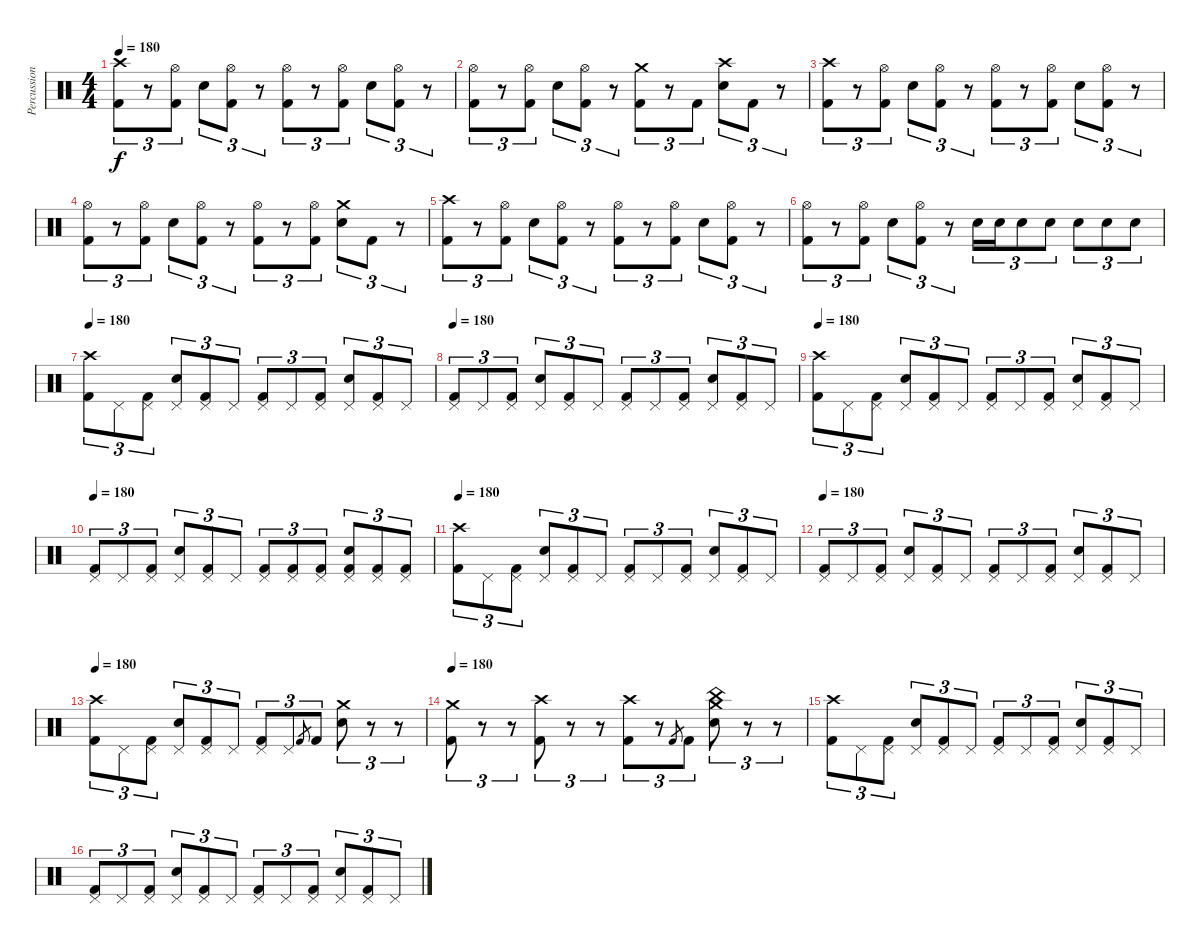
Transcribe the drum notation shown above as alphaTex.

\track ("Percussion" "Percussion") {instrument percussion}
\staff {score}
\articulation defaults
\ts (4 4)
\tempo 180
\clef neutral
\ks c
("Crash high (hit)" "Kick (hit) 2").8{tu (3 2) dy f} r.8{tu (3 2)} ("Hi-Hat (open)" "Kick (hit) 2").8{tu (3 2)} "Snare (hit) 2".8{tu (3 2)} ("Hi-Hat (open)" "Kick (hit) 2").8{tu (3 2)} r.8{tu (3 2)} ("Hi-Hat (open)" "Kick (hit) 2").8{tu (3 2)} r.8{tu (3 2)} ("Hi-Hat (open)" "Kick (hit) 2").8{tu (3 2)} "Snare (hit) 2".8{tu (3 2)} ("Hi-Hat (open)" "Kick (hit) 2").8{tu (3 2)} r.8{tu (3 2)} |
("Hi-Hat (open)" "Kick (hit) 2").8{tu (3 2)} r.8{tu (3 2)} ("Hi-Hat (open)" "Kick (hit) 2").8{tu (3 2)} "Snare (hit) 2".8{tu (3 2)} ("Hi-Hat (open)" "Kick (hit) 2").8{tu (3 2)} r.8{tu (3 2)} ("Crash medium (hit)" "Kick (hit) 2").8{tu (3 2)} r.8{tu (3 2)} "Kick (hit) 2".8{tu (3 2)} ("Crash high (hit)" "Snare (hit) 2").8{tu (3 2)} "Kick (hit) 2".8{tu (3 2)} r.8{tu (3 2)} |
("Crash high (hit)" "Kick (hit) 2").8{tu (3 2)} r.8{tu (3 2)} ("Hi-Hat (open)" "Kick (hit) 2").8{tu (3 2)} "Snare (hit) 2".8{tu (3 2)} ("Hi-Hat (open)" "Kick (hit) 2").8{tu (3 2)} r.8{tu (3 2)} ("Hi-Hat (open)" "Kick (hit) 2").8{tu (3 2)} r.8{tu (3 2)} ("Hi-Hat (open)" "Kick (hit) 2").8{tu (3 2)} "Snare (hit) 2".8{tu (3 2)} ("Hi-Hat (open)" "Kick (hit) 2").8{tu (3 2)} r.8{tu (3 2)} |
("Hi-Hat (open)" "Kick (hit) 2").8{tu (3 2)} r.8{tu (3 2)} ("Hi-Hat (open)" "Kick (hit) 2").8{tu (3 2)} "Snare (hit) 2".8{tu (3 2)} ("Hi-Hat (open)" "Kick (hit) 2").8{tu (3 2)} r.8{tu (3 2)} ("Hi-Hat (open)" "Kick (hit) 2").8{tu (3 2)} r.8{tu (3 2)} ("Hi-Hat (open)" "Kick (hit) 2").8{tu (3 2)} ("Crash medium (hit)" "Snare (hit) 2").8{tu (3 2)} "Kick (hit) 2".8{tu (3 2)} r.8{tu (3 2)} |
("Crash high (hit)" "Kick (hit) 2").8{tu (3 2)} r.8{tu (3 2)} ("Hi-Hat (open)" "Kick (hit) 2").8{tu (3 2)} "Snare (hit) 2".8{tu (3 2)} ("Hi-Hat (open)" "Kick (hit) 2").8{tu (3 2)} r.8{tu (3 2)} ("Hi-Hat (open)" "Kick (hit) 2").8{tu (3 2)} r.8{tu (3 2)} ("Hi-Hat (open)" "Kick (hit) 2").8{tu (3 2)} "Snare (hit) 2".8{tu (3 2)} ("Hi-Hat (open)" "Kick (hit) 2").8{tu (3 2)} r.8{tu (3 2)} |
("Hi-Hat (open)" "Kick (hit) 2").8{tu (3 2)} r.8{tu (3 2)} ("Hi-Hat (open)" "Kick (hit) 2").8{tu (3 2)} "Snare (hit) 2".8{tu (3 2)} ("Hi-Hat (open)" "Kick (hit) 2").8{tu (3 2)} r.8{tu (3 2)} "Snare (hit) 2".16{tu (3 2)} "Snare (hit) 2".16{tu (3 2)} "Snare (hit) 2".8{tu (3 2)} "Snare (hit) 2".8{tu (3 2)} "Snare (hit) 2".8{tu (3 2)} "Snare (hit) 2".8{tu (3 2)} "Snare (hit) 2".8{tu (3 2)} |
\tempo 180
("Crash high (hit)" "Kick (hit) 2").8{tu (3 2)} "Pedal Hi-Hat (hit)".8{tu (3 2)} ("Pedal Hi-Hat (hit)" "Kick (hit) 2").8{tu (3 2)} ("Pedal Hi-Hat (hit)" "Snare (hit) 2").8{tu (3 2)} ("Pedal Hi-Hat (hit)" "Kick (hit) 2").8{tu (3 2)} "Pedal Hi-Hat (hit)".8{tu (3 2)} ("Pedal Hi-Hat (hit)" "Kick (hit) 2").8{tu (3 2)} "Pedal Hi-Hat (hit)".8{tu (3 2)} ("Pedal Hi-Hat (hit)" "Kick (hit) 2").8{tu (3 2)} ("Pedal Hi-Hat (hit)" "Snare (hit) 2").8{tu (3 2)} ("Pedal Hi-Hat (hit)" "Kick (hit) 2").8{tu (3 2)} "Pedal Hi-Hat (hit)".8{tu (3 2)} |
\tempo 180
("Pedal Hi-Hat (hit)" "Kick (hit) 2").8{tu (3 2)} "Pedal Hi-Hat (hit)".8{tu (3 2)} ("Pedal Hi-Hat (hit)" "Kick (hit) 2").8{tu (3 2)} ("Pedal Hi-Hat (hit)" "Snare (hit) 2").8{tu (3 2)} ("Pedal Hi-Hat (hit)" "Kick (hit) 2").8{tu (3 2)} "Pedal Hi-Hat (hit)".8{tu (3 2)} ("Pedal Hi-Hat (hit)" "Kick (hit) 2").8{tu (3 2)} "Pedal Hi-Hat (hit)".8{tu (3 2)} ("Pedal Hi-Hat (hit)" "Kick (hit) 2").8{tu (3 2)} ("Pedal Hi-Hat (hit)" "Snare (hit) 2").8{tu (3 2)} ("Pedal Hi-Hat (hit)" "Kick (hit) 2").8{tu (3 2)} "Pedal Hi-Hat (hit)".8{tu (3 2)} |
\tempo 180
("Crash high (hit)" "Kick (hit) 2").8{tu (3 2)} "Pedal Hi-Hat (hit)".8{tu (3 2)} ("Pedal Hi-Hat (hit)" "Kick (hit) 2").8{tu (3 2)} ("Pedal Hi-Hat (hit)" "Snare (hit) 2").8{tu (3 2)} ("Pedal Hi-Hat (hit)" "Kick (hit) 2").8{tu (3 2)} "Pedal Hi-Hat (hit)".8{tu (3 2)} ("Pedal Hi-Hat (hit)" "Kick (hit) 2").8{tu (3 2)} "Pedal Hi-Hat (hit)".8{tu (3 2)} ("Pedal Hi-Hat (hit)" "Kick (hit) 2").8{tu (3 2)} ("Pedal Hi-Hat (hit)" "Snare (hit) 2").8{tu (3 2)} ("Pedal Hi-Hat (hit)" "Kick (hit) 2").8{tu (3 2)} "Pedal Hi-Hat (hit)".8{tu (3 2)} |
\tempo 180
("Pedal Hi-Hat (hit)" "Kick (hit) 2").8{tu (3 2)} "Pedal Hi-Hat (hit)".8{tu (3 2)} ("Pedal Hi-Hat (hit)" "Kick (hit) 2").8{tu (3 2)} ("Pedal Hi-Hat (hit)" "Snare (hit) 2").8{tu (3 2)} ("Pedal Hi-Hat (hit)" "Kick (hit) 2").8{tu (3 2)} "Pedal Hi-Hat (hit)".8{tu (3 2)} ("Pedal Hi-Hat (hit)" "Kick (hit) 2").8{tu (3 2)} ("Pedal Hi-Hat (hit)" "Kick (hit) 2").8{tu (3 2)} ("Pedal Hi-Hat (hit)" "Kick (hit) 2").8{tu (3 2)} ("Pedal Hi-Hat (hit)" "Snare (hit) 2" "Kick (hit) 2").8{tu (3 2)} ("Pedal Hi-Hat (hit)" "Kick (hit) 2").8{tu (3 2)} ("Pedal Hi-Hat (hit)" "Kick (hit) 2").8{tu (3 2)} |
\tempo 180
("Crash high (hit)" "Kick (hit) 2").8{tu (3 2)} "Pedal Hi-Hat (hit)".8{tu (3 2)} ("Pedal Hi-Hat (hit)" "Kick (hit) 2").8{tu (3 2)} ("Pedal Hi-Hat (hit)" "Snare (hit) 2").8{tu (3 2)} ("Pedal Hi-Hat (hit)" "Kick (hit) 2").8{tu (3 2)} "Pedal Hi-Hat (hit)".8{tu (3 2)} ("Pedal Hi-Hat (hit)" "Kick (hit) 2").8{tu (3 2)} "Pedal Hi-Hat (hit)".8{tu (3 2)} ("Pedal Hi-Hat (hit)" "Kick (hit) 2").8{tu (3 2)} ("Pedal Hi-Hat (hit)" "Snare (hit) 2").8{tu (3 2)} ("Pedal Hi-Hat (hit)" "Kick (hit) 2").8{tu (3 2)} "Pedal Hi-Hat (hit)".8{tu (3 2)} |
\tempo 180
("Pedal Hi-Hat (hit)" "Kick (hit) 2").8{tu (3 2)} "Pedal Hi-Hat (hit)".8{tu (3 2)} ("Pedal Hi-Hat (hit)" "Kick (hit) 2").8{tu (3 2)} ("Pedal Hi-Hat (hit)" "Snare (hit) 2").8{tu (3 2)} ("Pedal Hi-Hat (hit)" "Kick (hit) 2").8{tu (3 2)} "Pedal Hi-Hat (hit)".8{tu (3 2)} ("Pedal Hi-Hat (hit)" "Kick (hit) 2").8{tu (3 2)} "Pedal Hi-Hat (hit)".8{tu (3 2)} ("Pedal Hi-Hat (hit)" "Kick (hit) 2").8{tu (3 2)} ("Pedal Hi-Hat (hit)" "Snare (hit) 2").8{tu (3 2)} ("Pedal Hi-Hat (hit)" "Kick (hit) 2").8{tu (3 2)} "Pedal Hi-Hat (hit)".8{tu (3 2)} |
\tempo 180
("Crash high (hit)" "Kick (hit) 2").8{tu (3 2)} "Pedal Hi-Hat (hit)".8{tu (3 2)} ("Pedal Hi-Hat (hit)" "Kick (hit) 2").8{tu (3 2)} ("Pedal Hi-Hat (hit)" "Snare (hit) 2").8{tu (3 2)} ("Pedal Hi-Hat (hit)" "Kick (hit) 2").8{tu (3 2)} "Pedal Hi-Hat (hit)".8{tu (3 2)} ("Pedal Hi-Hat (hit)" "Kick (hit) 2").8{tu (3 2)} "Pedal Hi-Hat (hit)".8{tu (3 2)} "Kick (hit) 2".8{gr} "Kick (hit) 2".8{tu (3 2)} ("Crash medium (hit)" "Snare (hit) 2").8{tu (3 2)} r.8{tu (3 2)} r.8{tu (3 2)} |
\tempo 180
("Crash medium (hit)" "Kick (hit) 2").8{tu (3 2)} r.8{tu (3 2)} r.8{tu (3 2)} ("Crash high (hit)" "Kick (hit) 2").8{tu (3 2)} r.8{tu (3 2)} r.8{tu (3 2)} ("Crash high (hit)" "Kick (hit) 2").8{tu (3 2)} r.8{tu (3 2)} "Kick (hit) 2".8{gr} "Kick (hit) 2".8{tu (3 2)} ("Crash medium (hit)" "China (hit)" "Snare (hit) 2").8{tu (3 2)} r.8{tu (3 2)} r.8{tu (3 2)} |
("Crash high (hit)" "Kick (hit) 2").8{tu (3 2)} "Pedal Hi-Hat (hit)".8{tu (3 2)} ("Pedal Hi-Hat (hit)" "Kick (hit) 2").8{tu (3 2)} ("Pedal Hi-Hat (hit)" "Snare (hit) 2").8{tu (3 2)} ("Pedal Hi-Hat (hit)" "Kick (hit) 2").8{tu (3 2)} "Pedal Hi-Hat (hit)".8{tu (3 2)} ("Pedal Hi-Hat (hit)" "Kick (hit) 2").8{tu (3 2)} "Pedal Hi-Hat (hit)".8{tu (3 2)} ("Pedal Hi-Hat (hit)" "Kick (hit) 2").8{tu (3 2)} ("Pedal Hi-Hat (hit)" "Snare (hit) 2").8{tu (3 2)} ("Pedal Hi-Hat (hit)" "Kick (hit) 2").8{tu (3 2)} "Pedal Hi-Hat (hit)".8{tu (3 2)} |
("Pedal Hi-Hat (hit)" "Kick (hit) 2").8{tu (3 2)} "Pedal Hi-Hat (hit)".8{tu (3 2)} ("Pedal Hi-Hat (hit)" "Kick (hit) 2").8{tu (3 2)} ("Pedal Hi-Hat (hit)" "Snare (hit) 2").8{tu (3 2)} ("Pedal Hi-Hat (hit)" "Kick (hit) 2").8{tu (3 2)} "Pedal Hi-Hat (hit)".8{tu (3 2)} ("Pedal Hi-Hat (hit)" "Kick (hit) 2").8{tu (3 2)} "Pedal Hi-Hat (hit)".8{tu (3 2)} ("Pedal Hi-Hat (hit)" "Kick (hit) 2").8{tu (3 2)} ("Pedal Hi-Hat (hit)" "Snare (hit) 2").8{tu (3 2)} ("Pedal Hi-Hat (hit)" "Kick (hit) 2").8{tu (3 2)} "Pedal Hi-Hat (hit)".8{tu (3 2)}
